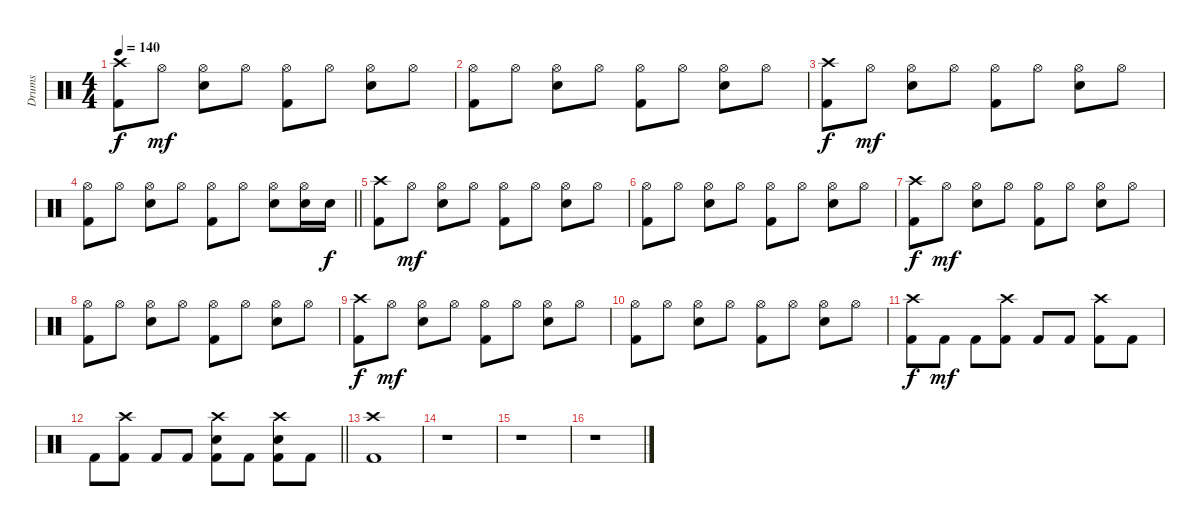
\track ("Drums" "Drums") {instrument percussion}
\staff {score}
\articulation defaults
\ts (4 4)
\tempo 140
\clef neutral
\ks c
("Crash high (hit)" "Kick (hit) 2").8{dy f} "Hi-Hat (open)".8{dy mf} ("Hi-Hat (open)" "Snare (hit) 2").8 "Hi-Hat (open)".8 ("Hi-Hat (open)" "Kick (hit) 2").8 "Hi-Hat (open)".8 ("Hi-Hat (open)" "Snare (hit) 2").8 "Hi-Hat (open)".8 |
("Hi-Hat (open)" "Kick (hit) 2").8 "Hi-Hat (open)".8 ("Hi-Hat (open)" "Snare (hit) 2").8 "Hi-Hat (open)".8 ("Hi-Hat (open)" "Kick (hit) 2").8 "Hi-Hat (open)".8 ("Hi-Hat (open)" "Snare (hit) 2").8 "Hi-Hat (open)".8 |
("Crash high (hit)" "Kick (hit) 2").8{dy f} "Hi-Hat (open)".8{dy mf} ("Hi-Hat (open)" "Snare (hit) 2").8 "Hi-Hat (open)".8 ("Hi-Hat (open)" "Kick (hit) 2").8 "Hi-Hat (open)".8 ("Hi-Hat (open)" "Snare (hit) 2").8 "Hi-Hat (open)".8 |
\barLineRight lightlight
("Hi-Hat (open)" "Kick (hit) 2").8 "Hi-Hat (open)".8 ("Hi-Hat (open)" "Snare (hit) 2").8 "Hi-Hat (open)".8 ("Hi-Hat (open)" "Kick (hit) 2").8 "Hi-Hat (open)".8 ("Hi-Hat (open)" "Snare (hit) 2").8 ("Hi-Hat (open)" "Snare (hit) 2").16 "Snare (hit) 2".16{dy f} |
("Crash high (hit)" "Kick (hit) 2").8 "Hi-Hat (open)".8{dy mf} ("Hi-Hat (open)" "Snare (hit) 2").8 "Hi-Hat (open)".8 ("Hi-Hat (open)" "Kick (hit) 2").8 "Hi-Hat (open)".8 ("Hi-Hat (open)" "Snare (hit) 2").8 "Hi-Hat (open)".8 |
("Hi-Hat (open)" "Kick (hit) 2").8 "Hi-Hat (open)".8 ("Hi-Hat (open)" "Snare (hit) 2").8 "Hi-Hat (open)".8 ("Hi-Hat (open)" "Kick (hit) 2").8 "Hi-Hat (open)".8 ("Hi-Hat (open)" "Snare (hit) 2").8 "Hi-Hat (open)".8 |
("Crash high (hit)" "Kick (hit) 2").8{dy f} "Hi-Hat (open)".8{dy mf} ("Hi-Hat (open)" "Snare (hit) 2").8 "Hi-Hat (open)".8 ("Hi-Hat (open)" "Kick (hit) 2").8 "Hi-Hat (open)".8 ("Hi-Hat (open)" "Snare (hit) 2").8 "Hi-Hat (open)".8 |
("Hi-Hat (open)" "Kick (hit) 2").8 "Hi-Hat (open)".8 ("Hi-Hat (open)" "Snare (hit) 2").8 "Hi-Hat (open)".8 ("Hi-Hat (open)" "Kick (hit) 2").8 "Hi-Hat (open)".8 ("Hi-Hat (open)" "Snare (hit) 2").8 "Hi-Hat (open)".8 |
("Crash high (hit)" "Kick (hit) 2").8{dy f} "Hi-Hat (open)".8{dy mf} ("Hi-Hat (open)" "Snare (hit) 2").8 "Hi-Hat (open)".8 ("Hi-Hat (open)" "Kick (hit) 2").8 "Hi-Hat (open)".8 ("Hi-Hat (open)" "Snare (hit) 2").8 "Hi-Hat (open)".8 |
("Hi-Hat (open)" "Kick (hit) 2").8 "Hi-Hat (open)".8 ("Hi-Hat (open)" "Snare (hit) 2").8 "Hi-Hat (open)".8 ("Hi-Hat (open)" "Kick (hit) 2").8 "Hi-Hat (open)".8 ("Hi-Hat (open)" "Snare (hit) 2").8 "Hi-Hat (open)".8 |
("Crash high (hit)" "Kick (hit) 2").8{dy f} "Kick (hit) 2".8{dy mf} "Kick (hit) 2".8 ("Crash high (hit)" "Kick (hit) 2").8 "Kick (hit) 2".8 "Kick (hit) 2".8 ("Crash high (hit)" "Kick (hit) 2").8 "Kick (hit) 2".8 |
\barLineRight lightlight "Kick (hit) 2".8
("Crash high (hit)" "Kick (hit) 2").8 "Kick (hit) 2".8 "Kick (hit) 2".8 ("Crash high (hit)" "Snare (hit) 2" "Kick (hit) 2").8 "Kick (hit) 2".8 ("Crash high (hit)" "Snare (hit) 2" "Kick (hit) 2").8 "Kick (hit) 2".8 |
("Crash high (hit)" "Kick (hit) 2").1 |
r.1 |
r.1 |
r.1
